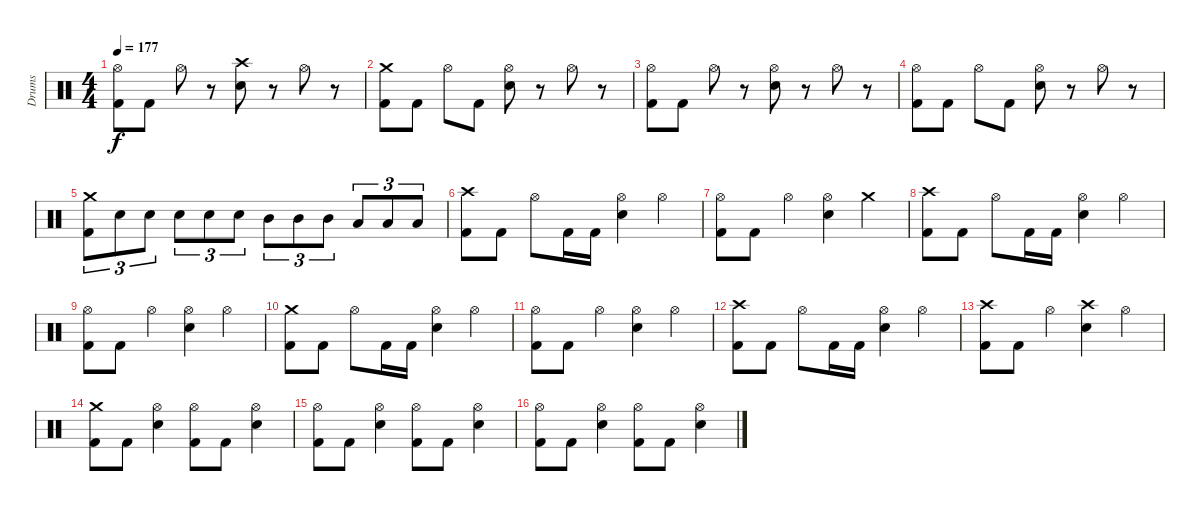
\track ("Drums" "Drums") {solo instrument percussion}
\staff {score}
\articulation defaults
\ts (4 4)
\tempo 177
\clef neutral
\ks c
("Hi-Hat (open)" "Kick (hit) 2").8{dy f} "Kick (hit) 2".8 "Hi-Hat (open)".8 r.8 ("Crash high (hit)" "Snare (hit) 2").8 r.8 "Hi-Hat (open)".8 r.8 |
("Crash medium (hit)" "Kick (hit) 2").8 "Kick (hit) 2".8 "Hi-Hat (open)".8 "Kick (hit) 2".8 ("Hi-Hat (open)" "Snare (hit) 2").8 r.8 "Hi-Hat (open)".8 r.8 |
("Hi-Hat (open)" "Kick (hit) 2").8 "Kick (hit) 2".8 "Hi-Hat (open)".8 r.8 ("Hi-Hat (open)" "Snare (hit) 2").8 r.8 "Hi-Hat (open)".8 r.8 |
("Hi-Hat (open)" "Kick (hit) 2").8 "Kick (hit) 2".8 "Hi-Hat (open)".8 "Kick (hit) 2".8 ("Hi-Hat (open)" "Snare (hit) 2").8 r.8 "Hi-Hat (open)".8 r.8 |
("Crash medium (hit)" "Kick (hit) 2").8{tu (3 2)} "Snare (hit) 2".8{tu (3 2)} "Snare (hit) 2".8{tu (3 2)} "Snare (hit) 2".8{tu (3 2)} "Snare (hit) 2".8{tu (3 2)} "Snare (hit) 2".8{tu (3 2)} "Mid Tom (hit)".8{tu (3 2)} "Mid Tom (hit)".8{tu (3 2)} "Mid Tom (hit)".8{tu (3 2)} "Low Tom (hit)".8{tu (3 2)} "Low Tom (hit)".8{tu (3 2)} "Low Tom (hit)".8{tu (3 2)} |
("Crash high (hit)" "Kick (hit) 2").8 "Kick (hit) 2".8 "Hi-Hat (open)".8 "Kick (hit) 2".16 "Kick (hit) 2".16 ("Hi-Hat (open)" "Snare (hit) 2").4 "Hi-Hat (open)".4 |
("Hi-Hat (open)" "Kick (hit) 2").8 "Kick (hit) 2".8 "Hi-Hat (open)".4 ("Hi-Hat (open)" "Snare (hit) 2").4 "Crash medium (hit)".4 |
("Crash high (hit)" "Kick (hit) 2").8 "Kick (hit) 2".8 "Hi-Hat (open)".8 "Kick (hit) 2".16 "Kick (hit) 2".16 ("Hi-Hat (open)" "Snare (hit) 2").4 "Hi-Hat (open)".4 |
("Hi-Hat (open)" "Kick (hit) 2").8 "Kick (hit) 2".8 "Hi-Hat (open)".4 ("Hi-Hat (open)" "Snare (hit) 2").4 "Hi-Hat (open)".4 |
("Crash medium (hit)" "Kick (hit) 2").8 "Kick (hit) 2".8 "Hi-Hat (open)".8 "Kick (hit) 2".16 "Kick (hit) 2".16 ("Hi-Hat (open)" "Snare (hit) 2").4 "Hi-Hat (open)".4 |
("Hi-Hat (open)" "Kick (hit) 2").8 "Kick (hit) 2".8 "Hi-Hat (open)".4 ("Hi-Hat (open)" "Snare (hit) 2").4 "Hi-Hat (open)".4 |
("Crash high (hit)" "Kick (hit) 2").8 "Kick (hit) 2".8 "Hi-Hat (open)".8 "Kick (hit) 2".16 "Kick (hit) 2".16 ("Hi-Hat (open)" "Snare (hit) 2").4 "Hi-Hat (open)".4 |
("Crash high (hit)" "Kick (hit) 2").8 "Kick (hit) 2".8 "Hi-Hat (open)".4 ("Crash high (hit)" "Snare (hit) 2").4 "Hi-Hat (open)".4 |
("Crash medium (hit)" "Kick (hit) 2").8 "Kick (hit) 2".8 ("Hi-Hat (open)" "Snare (hit) 2").4 ("Hi-Hat (open)" "Kick (hit) 2").8 "Kick (hit) 2".8 ("Hi-Hat (open)" "Snare (hit) 2").4 |
("Hi-Hat (open)" "Kick (hit) 2").8 "Kick (hit) 2".8 ("Hi-Hat (open)" "Snare (hit) 2").4 ("Hi-Hat (open)" "Kick (hit) 2").8 "Kick (hit) 2".8 ("Hi-Hat (open)" "Snare (hit) 2").4 |
("Hi-Hat (open)" "Kick (hit) 2").8 "Kick (hit) 2".8 ("Hi-Hat (open)" "Snare (hit) 2").4 ("Hi-Hat (open)" "Kick (hit) 2").8 "Kick (hit) 2".8 ("Hi-Hat (open)" "Snare (hit) 2").4
